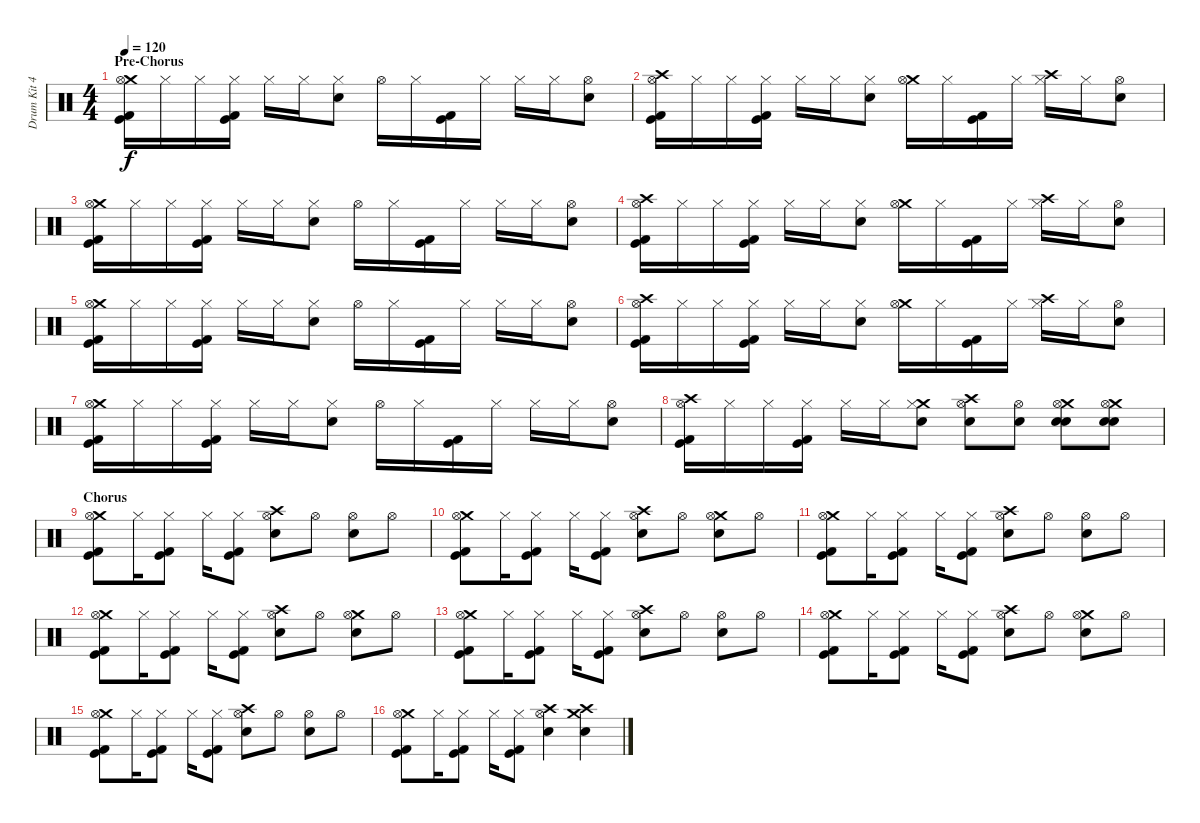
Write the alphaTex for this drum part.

\track ("Drum Kit 42" "Drum Kit 4") {instrument percussion}
\staff {score}
\articulation defaults
\ts (4 4)
\section ("" "Pre-Chorus")
\tempo 120
\clef neutral
\ks c
("Crash medium (hit)" "Hi-Hat (open)" "Kick (hit)" "Kick (hit) 2").16{dy f} "Hi-Hat (closed)".16 "Hi-Hat (closed)".16 ("Hi-Hat (closed)" "Kick (hit)" "Kick (hit) 2").16 "Hi-Hat (closed)".16 "Hi-Hat (closed)".16 ("Hi-Hat (closed)" "Snare (hit) 2").8 "Hi-Hat (open)".16 "Hi-Hat (closed)".16 ("Kick (hit)" "Kick (hit) 2").16 "Hi-Hat (closed)".16 "Hi-Hat (closed)".16 "Hi-Hat (closed)".16 ("Hi-Hat (open)" "Snare (hit) 2").8 |
("Crash high (hit)" "Hi-Hat (open)" "Kick (hit)" "Kick (hit) 2").16 "Hi-Hat (closed)".16 "Hi-Hat (closed)".16 ("Hi-Hat (closed)" "Kick (hit)" "Kick (hit) 2").16 "Hi-Hat (closed)".16 "Hi-Hat (closed)".16 ("Hi-Hat (closed)" "Snare (hit) 2").8 ("Crash medium (hit)" "Hi-Hat (open)").16 "Hi-Hat (closed)".16 ("Kick (hit)" "Kick (hit) 2").16 "Hi-Hat (closed)".16 ("Crash high (hit)" "Hi-Hat (closed)").16 "Hi-Hat (closed)".16 ("Hi-Hat (open)" "Snare (hit) 2").8 |
("Crash medium (hit)" "Hi-Hat (open)" "Kick (hit)" "Kick (hit) 2").16 "Hi-Hat (closed)".16 "Hi-Hat (closed)".16 ("Hi-Hat (closed)" "Kick (hit)" "Kick (hit) 2").16 "Hi-Hat (closed)".16 "Hi-Hat (closed)".16 ("Hi-Hat (closed)" "Snare (hit) 2").8 "Hi-Hat (open)".16 "Hi-Hat (closed)".16 ("Kick (hit)" "Kick (hit) 2").16 "Hi-Hat (closed)".16 "Hi-Hat (closed)".16 "Hi-Hat (closed)".16 ("Hi-Hat (open)" "Snare (hit) 2").8 |
("Crash high (hit)" "Hi-Hat (open)" "Kick (hit)" "Kick (hit) 2").16 "Hi-Hat (closed)".16 "Hi-Hat (closed)".16 ("Hi-Hat (closed)" "Kick (hit)" "Kick (hit) 2").16 "Hi-Hat (closed)".16 "Hi-Hat (closed)".16 ("Hi-Hat (closed)" "Snare (hit) 2").8 ("Crash medium (hit)" "Hi-Hat (open)").16 "Hi-Hat (closed)".16 ("Kick (hit)" "Kick (hit) 2").16 "Hi-Hat (closed)".16 ("Crash high (hit)" "Hi-Hat (closed)").16 "Hi-Hat (closed)".16 ("Hi-Hat (open)" "Snare (hit) 2").8 |
("Crash medium (hit)" "Hi-Hat (open)" "Kick (hit)" "Kick (hit) 2").16 "Hi-Hat (closed)".16 "Hi-Hat (closed)".16 ("Hi-Hat (closed)" "Kick (hit)" "Kick (hit) 2").16 "Hi-Hat (closed)".16 "Hi-Hat (closed)".16 ("Hi-Hat (closed)" "Snare (hit) 2").8 "Hi-Hat (open)".16 "Hi-Hat (closed)".16 ("Kick (hit)" "Kick (hit) 2").16 "Hi-Hat (closed)".16 "Hi-Hat (closed)".16 "Hi-Hat (closed)".16 ("Hi-Hat (open)" "Snare (hit) 2").8 |
("Crash high (hit)" "Hi-Hat (open)" "Kick (hit)" "Kick (hit) 2").16 "Hi-Hat (closed)".16 "Hi-Hat (closed)".16 ("Hi-Hat (closed)" "Kick (hit)" "Kick (hit) 2").16 "Hi-Hat (closed)".16 "Hi-Hat (closed)".16 ("Hi-Hat (closed)" "Snare (hit) 2").8 ("Crash medium (hit)" "Hi-Hat (open)").16 "Hi-Hat (closed)".16 ("Kick (hit)" "Kick (hit) 2").16 "Hi-Hat (closed)".16 ("Crash high (hit)" "Hi-Hat (closed)").16 "Hi-Hat (closed)".16 ("Hi-Hat (open)" "Snare (hit) 2").8 |
("Crash medium (hit)" "Hi-Hat (open)" "Kick (hit)" "Kick (hit) 2").16 "Hi-Hat (closed)".16 "Hi-Hat (closed)".16 ("Hi-Hat (closed)" "Kick (hit)" "Kick (hit) 2").16 "Hi-Hat (closed)".16 "Hi-Hat (closed)".16 ("Hi-Hat (closed)" "Snare (hit) 2").8 "Hi-Hat (open)".16 "Hi-Hat (closed)".16 ("Kick (hit)" "Kick (hit) 2").16 "Hi-Hat (closed)".16 "Hi-Hat (closed)".16 "Hi-Hat (closed)".16 ("Hi-Hat (open)" "Snare (hit) 2").8 |
("Crash high (hit)" "Hi-Hat (open)" "Kick (hit)" "Kick (hit) 2").16 "Hi-Hat (closed)".16 "Hi-Hat (closed)".16 ("Hi-Hat (closed)" "Kick (hit)" "Kick (hit) 2").16 "Hi-Hat (closed)".16 "Hi-Hat (closed)".16 ("Crash medium (hit)" "Hi-Hat (closed)" "Snare (hit) 2").8 ("Crash high (hit)" "Hi-Hat (open)" "Snare (hit) 2").8 ("Hi-Hat (open)" "Snare (hit) 2").8 ("Crash medium (hit)" "Hi-Hat (open)" "Snare (hit) 2" "Snare (hit) 2").8 ("Crash medium (hit)" "Hi-Hat (open)" "Snare (hit) 2" "Snare (hit) 2").8 |
\section ("" "Chorus")
("Crash medium (hit)" "Hi-Hat (open)" "Kick (hit)" "Kick (hit) 2").8 "Hi-Hat (closed)".16 ("Hi-Hat (closed)" "Kick (hit)" "Kick (hit) 2").8 "Hi-Hat (closed)".16 ("Hi-Hat (closed)" "Kick (hit)" "Kick (hit) 2").8 ("Crash high (hit)" "Hi-Hat (open)" "Snare (hit) 2").8 "Hi-Hat (open)".8 ("Hi-Hat (open)" "Snare (hit) 2").8 "Hi-Hat (open)".8 |
("Crash medium (hit)" "Hi-Hat (open)" "Kick (hit)" "Kick (hit) 2").8 "Hi-Hat (closed)".16 ("Hi-Hat (closed)" "Kick (hit)" "Kick (hit) 2").8 "Hi-Hat (closed)".16 ("Hi-Hat (closed)" "Kick (hit)" "Kick (hit) 2").8 ("Crash high (hit)" "Hi-Hat (open)" "Snare (hit) 2").8 "Hi-Hat (open)".8 ("Crash medium (hit)" "Hi-Hat (open)" "Snare (hit) 2").8 "Hi-Hat (open)".8 |
("Crash medium (hit)" "Hi-Hat (open)" "Kick (hit)" "Kick (hit) 2").8 "Hi-Hat (closed)".16 ("Hi-Hat (closed)" "Kick (hit)" "Kick (hit) 2").8 "Hi-Hat (closed)".16 ("Hi-Hat (closed)" "Kick (hit)" "Kick (hit) 2").8 ("Crash high (hit)" "Hi-Hat (open)" "Snare (hit) 2").8 "Hi-Hat (open)".8 ("Hi-Hat (open)" "Snare (hit) 2").8 "Hi-Hat (open)".8 |
("Crash medium (hit)" "Hi-Hat (open)" "Kick (hit)" "Kick (hit) 2").8 "Hi-Hat (closed)".16 ("Hi-Hat (closed)" "Kick (hit)" "Kick (hit) 2").8 "Hi-Hat (closed)".16 ("Hi-Hat (closed)" "Kick (hit)" "Kick (hit) 2").8 ("Crash high (hit)" "Hi-Hat (open)" "Snare (hit) 2").8 "Hi-Hat (open)".8 ("Crash medium (hit)" "Hi-Hat (open)" "Snare (hit) 2").8 "Hi-Hat (open)".8 |
("Crash medium (hit)" "Hi-Hat (open)" "Kick (hit)" "Kick (hit) 2").8 "Hi-Hat (closed)".16 ("Hi-Hat (closed)" "Kick (hit)" "Kick (hit) 2").8 "Hi-Hat (closed)".16 ("Hi-Hat (closed)" "Kick (hit)" "Kick (hit) 2").8 ("Crash high (hit)" "Hi-Hat (open)" "Snare (hit) 2").8 "Hi-Hat (open)".8 ("Hi-Hat (open)" "Snare (hit) 2").8 "Hi-Hat (open)".8 |
("Crash medium (hit)" "Hi-Hat (open)" "Kick (hit)" "Kick (hit) 2").8 "Hi-Hat (closed)".16 ("Hi-Hat (closed)" "Kick (hit)" "Kick (hit) 2").8 "Hi-Hat (closed)".16 ("Hi-Hat (closed)" "Kick (hit)" "Kick (hit) 2").8 ("Crash high (hit)" "Hi-Hat (open)" "Snare (hit) 2").8 "Hi-Hat (open)".8 ("Crash medium (hit)" "Hi-Hat (open)" "Snare (hit) 2").8 "Hi-Hat (open)".8 |
("Crash medium (hit)" "Hi-Hat (open)" "Kick (hit)" "Kick (hit) 2").8 "Hi-Hat (closed)".16 ("Hi-Hat (closed)" "Kick (hit)" "Kick (hit) 2").8 "Hi-Hat (closed)".16 ("Hi-Hat (closed)" "Kick (hit)" "Kick (hit) 2").8 ("Crash high (hit)" "Hi-Hat (open)" "Snare (hit) 2").8 "Hi-Hat (open)".8 ("Hi-Hat (open)" "Snare (hit) 2").8 "Hi-Hat (open)".8 |
("Crash medium (hit)" "Hi-Hat (open)" "Kick (hit)" "Kick (hit) 2").8 "Hi-Hat (closed)".16 ("Hi-Hat (closed)" "Kick (hit)" "Kick (hit) 2").8 "Hi-Hat (closed)".16 ("Hi-Hat (closed)" "Kick (hit)" "Kick (hit) 2").8 ("Crash high (hit)" "Hi-Hat (open)" "Snare (hit) 2").4 ("Crash medium (hit)" "Crash high (hit)" "Snare (hit) 2").4
